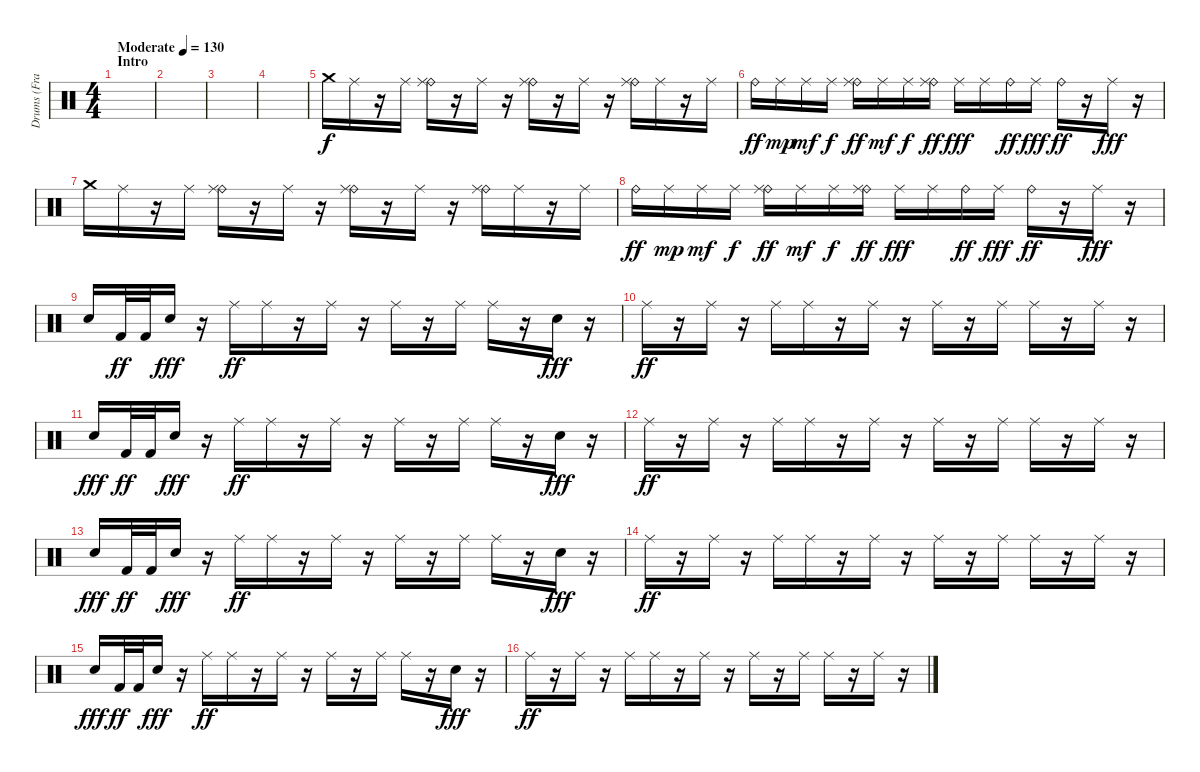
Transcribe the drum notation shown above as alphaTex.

\track ("Drums (Franky)" "Drums (Fra") {instrument percussion}
\staff {score}
\articulation defaults
\ts (4 4)
\section ("" "Intro")
\tempo (130 "Moderate")
\clef neutral
\ks c
|
|
|
|
"Crash medium (hit)".16 "Ride (middle)".16 r.16 "Ride (middle)".16 ("Ride (bell)" "Ride (middle)").16 r.16 "Ride (middle)".16 r.16 ("Ride (bell)" "Ride (middle)").16 r.16 "Ride (middle)".16 r.16 ("Ride (bell)" "Ride (middle)").16 "Ride (middle)".16 r.16 "Ride (middle)".16 |
"Ride (bell)".16{dy ff} "Ride (middle)".16{dy mp} "Ride (middle)".16{dy mf} "Ride (middle)".16{dy f} ("Ride (bell)" "Ride (middle)").16{dy ff} "Ride (middle)".16{dy mf} "Ride (middle)".16{dy f} ("Ride (bell)" "Ride (middle)").16{dy ff} "Ride (middle)".16{dy fff} "Ride (middle)".16 "Ride (bell)".16{dy ff} "Ride (middle)".16{dy fff} "Ride (bell)".16{dy ff} r.16 "Ride (middle)".16{dy fff} r.16 |
"Crash medium (hit)".16 "Ride (middle)".16 r.16 "Ride (middle)".16 ("Ride (bell)" "Ride (middle)").16 r.16 "Ride (middle)".16 r.16 ("Ride (bell)" "Ride (middle)").16 r.16 "Ride (middle)".16 r.16 ("Ride (bell)" "Ride (middle)").16 "Ride (middle)".16 r.16 "Ride (middle)".16 |
"Ride (bell)".16{dy ff} "Ride (middle)".16{dy mp} "Ride (middle)".16{dy mf} "Ride (middle)".16{dy f} ("Ride (bell)" "Ride (middle)").16{dy ff} "Ride (middle)".16{dy mf} "Ride (middle)".16{dy f} ("Ride (bell)" "Ride (middle)").16{dy ff} "Ride (middle)".16{dy fff} "Ride (middle)".16 "Ride (bell)".16{dy ff} "Ride (middle)".16{dy fff} "Ride (bell)".16{dy ff} r.16 "Ride (middle)".16{dy fff} r.16 |
"Electric Snare (hit)".16 "Kick (hit) 2".32{dy ff} "Kick (hit) 2".32 "Electric Snare (hit)".16{dy fff} r.16 "Ride (middle)".16{dy ff} "Ride (middle)".16 r.16 "Ride (middle)".16 r.16 "Ride (middle)".16 r.16 "Ride (middle)".16 "Ride (middle)".16 r.16 "Electric Snare (hit)".16{dy fff} r.16 |
"Ride (middle)".16{dy ff} r.16 "Ride (middle)".16 r.16 "Ride (middle)".16 "Ride (middle)".16 r.16 "Ride (middle)".16 r.16 "Ride (middle)".16 r.16 "Ride (middle)".16 "Ride (middle)".16 r.16 "Ride (middle)".16 r.16 |
"Electric Snare (hit)".16{dy fff} "Kick (hit) 2".32{dy ff} "Kick (hit) 2".32 "Electric Snare (hit)".16{dy fff} r.16 "Ride (middle)".16{dy ff} "Ride (middle)".16 r.16 "Ride (middle)".16 r.16 "Ride (middle)".16 r.16 "Ride (middle)".16 "Ride (middle)".16 r.16 "Electric Snare (hit)".16{dy fff} r.16 |
"Ride (middle)".16{dy ff} r.16 "Ride (middle)".16 r.16 "Ride (middle)".16 "Ride (middle)".16 r.16 "Ride (middle)".16 r.16 "Ride (middle)".16 r.16 "Ride (middle)".16 "Ride (middle)".16 r.16 "Ride (middle)".16 r.16 |
"Electric Snare (hit)".16{dy fff} "Kick (hit) 2".32{dy ff} "Kick (hit) 2".32 "Electric Snare (hit)".16{dy fff} r.16 "Ride (middle)".16{dy ff} "Ride (middle)".16 r.16 "Ride (middle)".16 r.16 "Ride (middle)".16 r.16 "Ride (middle)".16 "Ride (middle)".16 r.16 "Electric Snare (hit)".16{dy fff} r.16 |
"Ride (middle)".16{dy ff} r.16 "Ride (middle)".16 r.16 "Ride (middle)".16 "Ride (middle)".16 r.16 "Ride (middle)".16 r.16 "Ride (middle)".16 r.16 "Ride (middle)".16 "Ride (middle)".16 r.16 "Ride (middle)".16 r.16 |
"Electric Snare (hit)".16{dy fff} "Kick (hit) 2".32{dy ff} "Kick (hit) 2".32 "Electric Snare (hit)".16{dy fff} r.16 "Ride (middle)".16{dy ff} "Ride (middle)".16 r.16 "Ride (middle)".16 r.16 "Ride (middle)".16 r.16 "Ride (middle)".16 "Ride (middle)".16 r.16 "Electric Snare (hit)".16{dy fff} r.16 |
"Ride (middle)".16{dy ff} r.16 "Ride (middle)".16 r.16 "Ride (middle)".16 "Ride (middle)".16 r.16 "Ride (middle)".16 r.16 "Ride (middle)".16 r.16 "Ride (middle)".16 "Ride (middle)".16 r.16 "Ride (middle)".16 r.16
